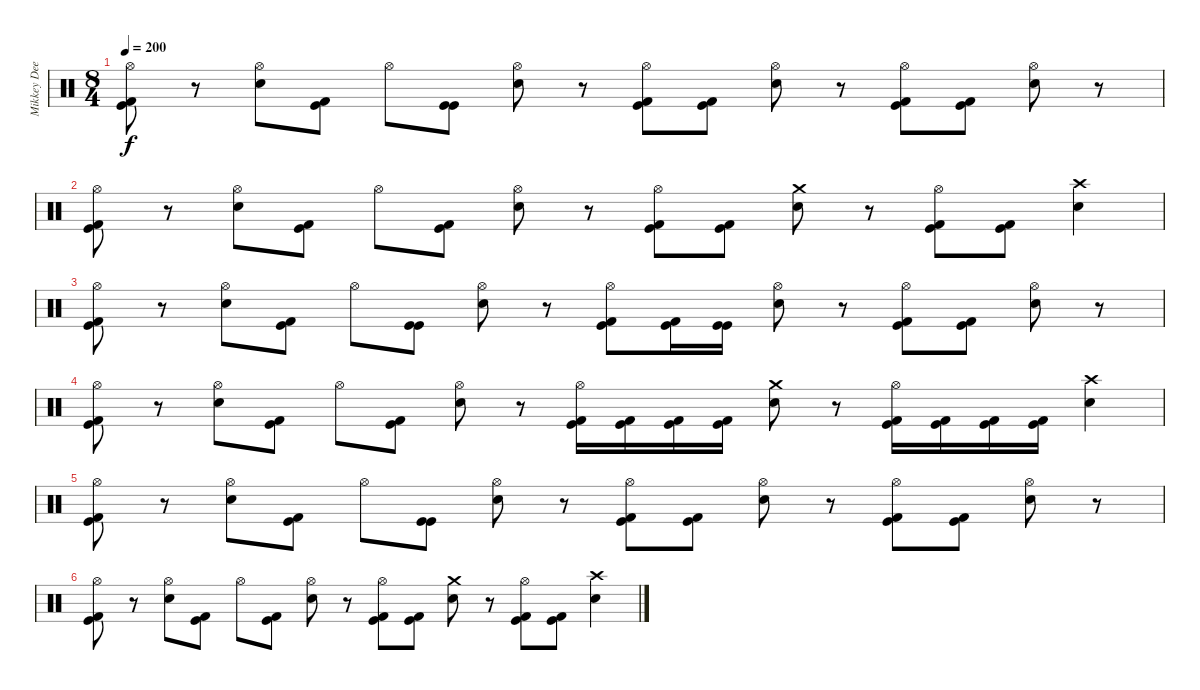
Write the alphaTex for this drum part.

\track ("Mikkey Dee" "Mikkey Dee") {instrument percussion}
\staff {score}
\articulation defaults
\ts (8 4)
\tempo 200
\clef neutral
\ks c
("Hi-Hat (open)" "Kick (hit)" "Kick (hit) 2").8{dy f} r.8 ("Hi-Hat (open)" "Electric Snare (hit)").8 ("Kick (hit)" "Kick (hit) 2").8 "Hi-Hat (open)".8 ("Kick (hit)" "Kick (hit)").8 ("Hi-Hat (open)" "Electric Snare (hit)").8 r.8 ("Hi-Hat (open)" "Kick (hit)" "Kick (hit) 2").8 ("Kick (hit)" "Kick (hit) 2").8 ("Hi-Hat (open)" "Electric Snare (hit)").8 r.8 ("Hi-Hat (open)" "Kick (hit)" "Kick (hit) 2").8 ("Kick (hit)" "Kick (hit) 2").8 ("Hi-Hat (open)" "Electric Snare (hit)").8 r.8 |
("Hi-Hat (open)" "Kick (hit)" "Kick (hit) 2").8 r.8 ("Hi-Hat (open)" "Electric Snare (hit)").8 ("Kick (hit)" "Kick (hit) 2").8 "Hi-Hat (open)".8 ("Kick (hit)" "Kick (hit) 2").8 ("Hi-Hat (open)" "Electric Snare (hit)").8 r.8 ("Hi-Hat (open)" "Kick (hit)" "Kick (hit) 2").8 ("Kick (hit)" "Kick (hit) 2").8 ("Crash medium (hit)" "Electric Snare (hit)").8 r.8 ("Hi-Hat (open)" "Kick (hit)" "Kick (hit) 2").8 ("Kick (hit)" "Kick (hit) 2").8 ("Crash high (hit)" "Electric Snare (hit)").4 |
("Hi-Hat (open)" "Kick (hit)" "Kick (hit) 2").8{volume 14} r.8 ("Hi-Hat (open)" "Electric Snare (hit)").8 ("Kick (hit)" "Kick (hit) 2").8 "Hi-Hat (open)".8 ("Kick (hit)" "Kick (hit)").8 ("Hi-Hat (open)" "Electric Snare (hit)").8 r.8 ("Hi-Hat (open)" "Kick (hit)" "Kick (hit) 2").8 ("Kick (hit)" "Kick (hit) 2").16 ("Kick (hit)" "Kick (hit)").16 ("Hi-Hat (open)" "Electric Snare (hit)").8 r.8 ("Hi-Hat (open)" "Kick (hit)" "Kick (hit) 2").8 ("Kick (hit)" "Kick (hit) 2").8 ("Hi-Hat (open)" "Electric Snare (hit)").8 r.8 |
("Hi-Hat (open)" "Kick (hit)" "Kick (hit) 2").8{volume 12} r.8 ("Hi-Hat (open)" "Electric Snare (hit)").8 ("Kick (hit)" "Kick (hit) 2").8 "Hi-Hat (open)".8 ("Kick (hit)" "Kick (hit) 2").8 ("Hi-Hat (open)" "Electric Snare (hit)").8 r.8 ("Hi-Hat (open)" "Kick (hit)" "Kick (hit) 2").16 ("Kick (hit)" "Kick (hit) 2").16 ("Kick (hit)" "Kick (hit) 2").16 ("Kick (hit)" "Kick (hit) 2").16 ("Crash medium (hit)" "Electric Snare (hit)").8 r.8 ("Hi-Hat (open)" "Kick (hit)" "Kick (hit) 2").16 ("Kick (hit)" "Kick (hit) 2").16 ("Kick (hit)" "Kick (hit) 2").16 ("Kick (hit)" "Kick (hit) 2").16 ("Crash high (hit)" "Electric Snare (hit)").4 |
("Hi-Hat (open)" "Kick (hit)" "Kick (hit) 2").8{volume 10} r.8 ("Hi-Hat (open)" "Electric Snare (hit)").8 ("Kick (hit)" "Kick (hit) 2").8 "Hi-Hat (open)".8 ("Kick (hit)" "Kick (hit)").8 ("Hi-Hat (open)" "Electric Snare (hit)").8 r.8 ("Hi-Hat (open)" "Kick (hit)" "Kick (hit) 2").8 ("Kick (hit)" "Kick (hit) 2").8 ("Hi-Hat (open)" "Electric Snare (hit)").8 r.8 ("Hi-Hat (open)" "Kick (hit)" "Kick (hit) 2").8 ("Kick (hit)" "Kick (hit) 2").8 ("Hi-Hat (open)" "Electric Snare (hit)").8 r.8 |
("Hi-Hat (open)" "Kick (hit)" "Kick (hit) 2").8{volume 7} r.8 ("Hi-Hat (open)" "Electric Snare (hit)").8 ("Kick (hit)" "Kick (hit) 2").8 "Hi-Hat (open)".8 ("Kick (hit)" "Kick (hit) 2").8 ("Hi-Hat (open)" "Electric Snare (hit)").8 r.8 ("Hi-Hat (open)" "Kick (hit)" "Kick (hit) 2").8 ("Kick (hit)" "Kick (hit) 2").8 ("Crash medium (hit)" "Electric Snare (hit)").8 r.8 ("Hi-Hat (open)" "Kick (hit)" "Kick (hit) 2").8 ("Kick (hit)" "Kick (hit) 2").8 ("Crash high (hit)" "Electric Snare (hit)").4
